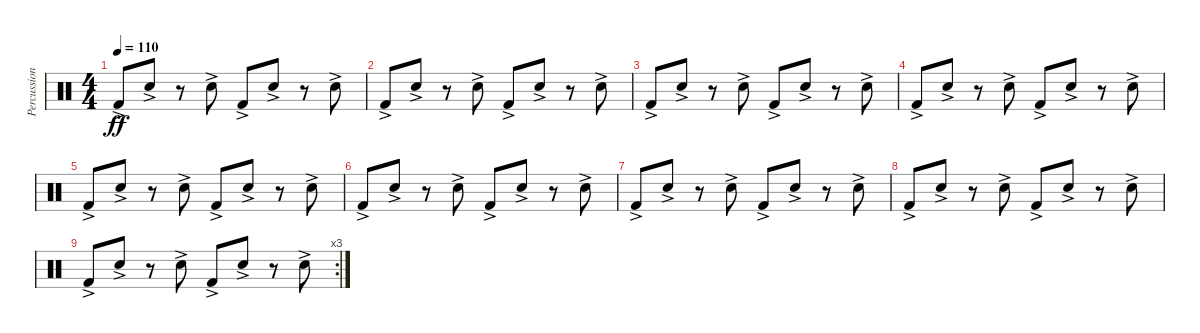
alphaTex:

\track ("Percussion" "Percussion") {instrument percussion}
\staff {score}
\articulation defaults
\ts (4 4)
\tempo 110
\clef neutral
\ks c "Kick (hit) 2"{ac}.8{dy ff} "Snare (hit) 2"{ac}.8
r.8 "Snare (hit) 2"{ac}.8 "Kick (hit) 2"{ac}.8 "Snare (hit) 2"{ac}.8 r.8 "Snare (hit) 2"{ac}.8 |
"Kick (hit) 2"{ac}.8 "Snare (hit) 2"{ac}.8 r.8 "Snare (hit) 2"{ac}.8 "Kick (hit) 2"{ac}.8 "Snare (hit) 2"{ac}.8 r.8 "Snare (hit) 2"{ac}.8 |
"Kick (hit) 2"{ac}.8 "Snare (hit) 2"{ac}.8 r.8 "Snare (hit) 2"{ac}.8 "Kick (hit) 2"{ac}.8 "Snare (hit) 2"{ac}.8 r.8 "Snare (hit) 2"{ac}.8 |
"Kick (hit) 2"{ac}.8 "Snare (hit) 2"{ac}.8 r.8 "Snare (hit) 2"{ac}.8 "Kick (hit) 2"{ac}.8 "Snare (hit) 2"{ac}.8 r.8 "Snare (hit) 2"{ac}.8 |
"Kick (hit) 2"{ac}.8 "Snare (hit) 2"{ac}.8 r.8 "Snare (hit) 2"{ac}.8 "Kick (hit) 2"{ac}.8 "Snare (hit) 2"{ac}.8 r.8 "Snare (hit) 2"{ac}.8 |
"Kick (hit) 2"{ac}.8 "Snare (hit) 2"{ac}.8 r.8 "Snare (hit) 2"{ac}.8 "Kick (hit) 2"{ac}.8 "Snare (hit) 2"{ac}.8 r.8 "Snare (hit) 2"{ac}.8 |
"Kick (hit) 2"{ac}.8 "Snare (hit) 2"{ac}.8 r.8 "Snare (hit) 2"{ac}.8 "Kick (hit) 2"{ac}.8 "Snare (hit) 2"{ac}.8 r.8 "Snare (hit) 2"{ac}.8 |
"Kick (hit) 2"{ac}.8 "Snare (hit) 2"{ac}.8 r.8 "Snare (hit) 2"{ac}.8 "Kick (hit) 2"{ac}.8 "Snare (hit) 2"{ac}.8 r.8 "Snare (hit) 2"{ac}.8 |
\rc 3 "Kick (hit) 2"{ac}.8 "Snare (hit) 2"{ac}.8
r.8 "Snare (hit) 2"{ac}.8 "Kick (hit) 2"{ac}.8 "Snare (hit) 2"{ac}.8 r.8 "Snare (hit) 2"{ac}.8
